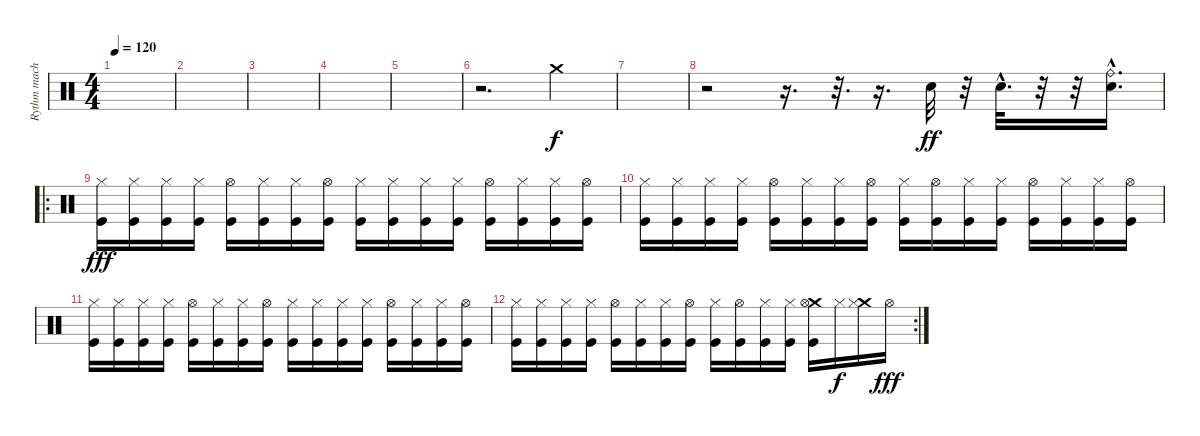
\track ("Rythm machine" "Rythm mach") {instrument percussion}
\staff {score}
\articulation defaults
\ts (4 4)
\tempo 120
\clef neutral
\ks c
|
|
|
|
|
r.2{d} "Crash medium (hit)".4 |
|
r.2 r.16{d} r.32{d} r.16{d} "Electric Snare (hit)".32{dy ff} r.32 "Electric Snare (hit)"{hac}.32{d} r.32 r.32 ("Ride (bell)"{hac} "Electric Snare (hit)"{hac}).16{d} |
\ro
("Hi-Hat (closed)" "Kick (hit)").16{dy fff} ("Hi-Hat (closed)" "Kick (hit)").16 ("Hi-Hat (closed)" "Kick (hit)").16 ("Hi-Hat (closed)" "Kick (hit)").16 ("Hi-Hat (open)" "Kick (hit)").16 ("Hi-Hat (closed)" "Kick (hit)").16 ("Hi-Hat (closed)" "Kick (hit)").16 ("Hi-Hat (open)" "Kick (hit)").16 ("Hi-Hat (closed)" "Kick (hit)").16 ("Hi-Hat (closed)" "Kick (hit)").16 ("Hi-Hat (closed)" "Kick (hit)").16 ("Hi-Hat (closed)" "Kick (hit)").16 ("Hi-Hat (open)" "Kick (hit)").16 ("Hi-Hat (closed)" "Kick (hit)").16 ("Hi-Hat (closed)" "Kick (hit)").16 ("Hi-Hat (open)" "Kick (hit)").16 |
("Hi-Hat (closed)" "Kick (hit)").16 ("Hi-Hat (closed)" "Kick (hit)").16 ("Hi-Hat (closed)" "Kick (hit)").16 ("Hi-Hat (closed)" "Kick (hit)").16 ("Hi-Hat (open)" "Kick (hit)").16 ("Hi-Hat (closed)" "Kick (hit)").16 ("Hi-Hat (closed)" "Kick (hit)").16 ("Hi-Hat (open)" "Kick (hit)").16 ("Hi-Hat (closed)" "Kick (hit)").16 ("Hi-Hat (open)" "Kick (hit)").16 ("Hi-Hat (closed)" "Kick (hit)").16 ("Hi-Hat (closed)" "Kick (hit)").16 ("Hi-Hat (open)" "Kick (hit)").16 ("Hi-Hat (closed)" "Kick (hit)").16 ("Hi-Hat (closed)" "Kick (hit)").16 ("Hi-Hat (open)" "Kick (hit)").16 |
("Hi-Hat (closed)" "Kick (hit)").16 ("Hi-Hat (closed)" "Kick (hit)").16 ("Hi-Hat (closed)" "Kick (hit)").16 ("Hi-Hat (closed)" "Kick (hit)").16 ("Hi-Hat (open)" "Kick (hit)").16 ("Hi-Hat (closed)" "Kick (hit)").16 ("Hi-Hat (closed)" "Kick (hit)").16 ("Hi-Hat (open)" "Kick (hit)").16 ("Hi-Hat (closed)" "Kick (hit)").16 ("Hi-Hat (closed)" "Kick (hit)").16 ("Hi-Hat (closed)" "Kick (hit)").16 ("Hi-Hat (closed)" "Kick (hit)").16 ("Hi-Hat (open)" "Kick (hit)").16 ("Hi-Hat (closed)" "Kick (hit)").16 ("Hi-Hat (closed)" "Kick (hit)").16 ("Hi-Hat (open)" "Kick (hit)").16 |
\rc 2
("Hi-Hat (closed)" "Kick (hit)").16 ("Hi-Hat (closed)" "Kick (hit)").16 ("Hi-Hat (closed)" "Kick (hit)").16 ("Hi-Hat (closed)" "Kick (hit)").16 ("Hi-Hat (open)" "Kick (hit)").16 ("Hi-Hat (closed)" "Kick (hit)").16 ("Hi-Hat (closed)" "Kick (hit)").16 ("Hi-Hat (open)" "Kick (hit)").16 ("Hi-Hat (closed)" "Kick (hit)").16 ("Hi-Hat (open)" "Kick (hit)").16 ("Hi-Hat (closed)" "Kick (hit)").16 ("Hi-Hat (closed)" "Kick (hit)").16 ("Crash medium (hit)" "Hi-Hat (open)" "Kick (hit)").16 "Hi-Hat (closed)".16{dy f} ("Crash medium (hit)" "Hi-Hat (closed)").16 "Hi-Hat (open)".16{dy fff}
